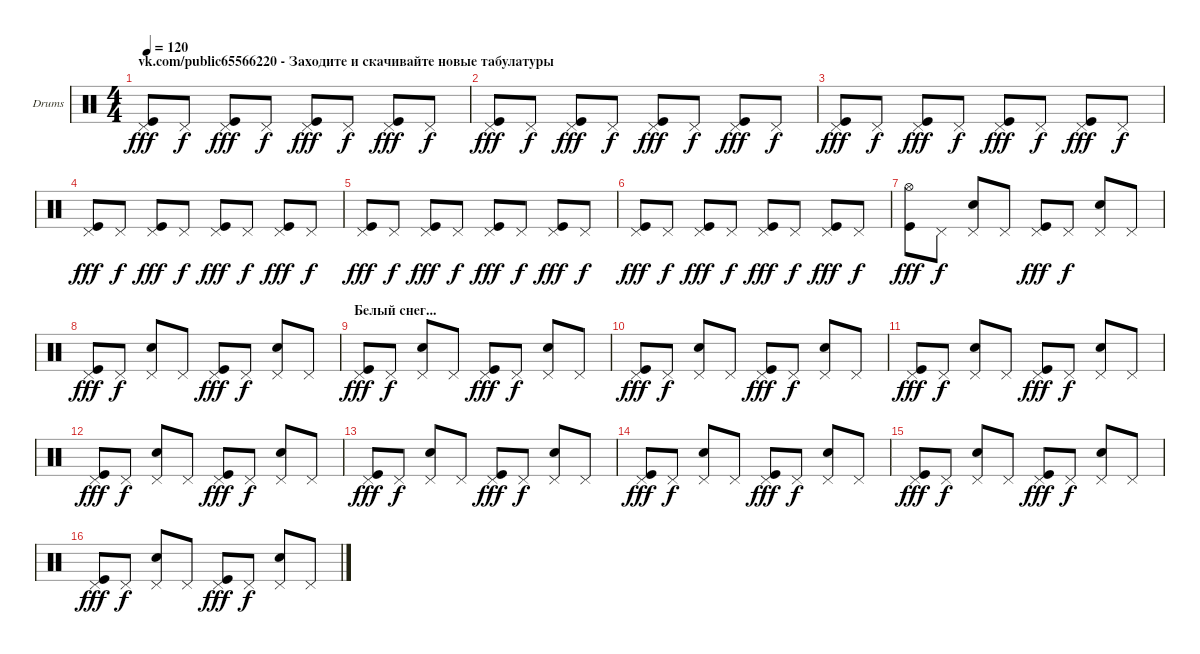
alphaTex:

\bracketExtendMode groupsimilarinstruments
\firstSystemTrackNameOrientation horizontal
\otherSystemsTrackNameOrientation horizontal
\track ("Ударные" "Drums") {instrument percussion}
\staff {score}
\articulation defaults
\ts (4 4)
\section ("" "vk.com/public65566220 - Заходите и скачивайте новые табулатуры")
\tempo 120
\clef neutral
\ks c
("Kick (hit)" "Pedal Hi-Hat (hit)").8{dy fff} "Pedal Hi-Hat (hit)".8{dy f} ("Kick (hit)" "Pedal Hi-Hat (hit)").8{dy fff} "Pedal Hi-Hat (hit)".8{dy f} ("Kick (hit)" "Pedal Hi-Hat (hit)").8{dy fff} "Pedal Hi-Hat (hit)".8{dy f} ("Kick (hit)" "Pedal Hi-Hat (hit)").8{dy fff} "Pedal Hi-Hat (hit)".8{dy f} |
("Kick (hit)" "Pedal Hi-Hat (hit)").8{dy fff} "Pedal Hi-Hat (hit)".8{dy f} ("Kick (hit)" "Pedal Hi-Hat (hit)").8{dy fff} "Pedal Hi-Hat (hit)".8{dy f} ("Kick (hit)" "Pedal Hi-Hat (hit)").8{dy fff} "Pedal Hi-Hat (hit)".8{dy f} ("Kick (hit)" "Pedal Hi-Hat (hit)").8{dy fff} "Pedal Hi-Hat (hit)".8{dy f} |
("Kick (hit)" "Pedal Hi-Hat (hit)").8{dy fff} "Pedal Hi-Hat (hit)".8{dy f} ("Kick (hit)" "Pedal Hi-Hat (hit)").8{dy fff} "Pedal Hi-Hat (hit)".8{dy f} ("Kick (hit)" "Pedal Hi-Hat (hit)").8{dy fff} "Pedal Hi-Hat (hit)".8{dy f} ("Kick (hit)" "Pedal Hi-Hat (hit)").8{dy fff} "Pedal Hi-Hat (hit)".8{dy f} |
("Kick (hit)" "Pedal Hi-Hat (hit)").8{dy fff} "Pedal Hi-Hat (hit)".8{dy f} ("Kick (hit)" "Pedal Hi-Hat (hit)").8{dy fff} "Pedal Hi-Hat (hit)".8{dy f} ("Kick (hit)" "Pedal Hi-Hat (hit)").8{dy fff} "Pedal Hi-Hat (hit)".8{dy f} ("Kick (hit)" "Pedal Hi-Hat (hit)").8{dy fff} "Pedal Hi-Hat (hit)".8{dy f} |
("Kick (hit)" "Pedal Hi-Hat (hit)").8{dy fff} "Pedal Hi-Hat (hit)".8{dy f} ("Kick (hit)" "Pedal Hi-Hat (hit)").8{dy fff} "Pedal Hi-Hat (hit)".8{dy f} ("Kick (hit)" "Pedal Hi-Hat (hit)").8{dy fff} "Pedal Hi-Hat (hit)".8{dy f} ("Kick (hit)" "Pedal Hi-Hat (hit)").8{dy fff} "Pedal Hi-Hat (hit)".8{dy f} |
("Kick (hit)" "Pedal Hi-Hat (hit)").8{dy fff} "Pedal Hi-Hat (hit)".8{dy f} ("Kick (hit)" "Pedal Hi-Hat (hit)").8{dy fff} "Pedal Hi-Hat (hit)".8{dy f} ("Kick (hit)" "Pedal Hi-Hat (hit)").8{dy fff} "Pedal Hi-Hat (hit)".8{dy f} ("Kick (hit)" "Pedal Hi-Hat (hit)").8{dy fff} "Pedal Hi-Hat (hit)".8{dy f} |
("Kick (hit)" "Hi-Hat (open)").8{dy fff} "Pedal Hi-Hat (hit)".8{dy f} ("Snare (hit) 2" "Pedal Hi-Hat (hit)").8 "Pedal Hi-Hat (hit)".8 ("Kick (hit)" "Pedal Hi-Hat (hit)").8{dy fff} "Pedal Hi-Hat (hit)".8{dy f} ("Snare (hit) 2" "Pedal Hi-Hat (hit)").8 "Pedal Hi-Hat (hit)".8 |
("Kick (hit)" "Pedal Hi-Hat (hit)").8{dy fff} "Pedal Hi-Hat (hit)".8{dy f} ("Snare (hit) 2" "Pedal Hi-Hat (hit)").8 "Pedal Hi-Hat (hit)".8 ("Kick (hit)" "Pedal Hi-Hat (hit)").8{dy fff} "Pedal Hi-Hat (hit)".8{dy f} ("Snare (hit) 2" "Pedal Hi-Hat (hit)").8 "Pedal Hi-Hat (hit)".8 |
\section ("" "Белый снег...")
("Kick (hit)" "Pedal Hi-Hat (hit)").8{dy fff} "Pedal Hi-Hat (hit)".8{dy f} ("Snare (hit) 2" "Pedal Hi-Hat (hit)").8 "Pedal Hi-Hat (hit)".8 ("Kick (hit)" "Pedal Hi-Hat (hit)").8{dy fff} "Pedal Hi-Hat (hit)".8{dy f} ("Snare (hit) 2" "Pedal Hi-Hat (hit)").8 "Pedal Hi-Hat (hit)".8 |
("Kick (hit)" "Pedal Hi-Hat (hit)").8{dy fff} "Pedal Hi-Hat (hit)".8{dy f} ("Snare (hit) 2" "Pedal Hi-Hat (hit)").8 "Pedal Hi-Hat (hit)".8 ("Kick (hit)" "Pedal Hi-Hat (hit)").8{dy fff} "Pedal Hi-Hat (hit)".8{dy f} ("Snare (hit) 2" "Pedal Hi-Hat (hit)").8 "Pedal Hi-Hat (hit)".8 |
("Kick (hit)" "Pedal Hi-Hat (hit)").8{dy fff} "Pedal Hi-Hat (hit)".8{dy f} ("Snare (hit) 2" "Pedal Hi-Hat (hit)").8 "Pedal Hi-Hat (hit)".8 ("Kick (hit)" "Pedal Hi-Hat (hit)").8{dy fff} "Pedal Hi-Hat (hit)".8{dy f} ("Snare (hit) 2" "Pedal Hi-Hat (hit)").8 "Pedal Hi-Hat (hit)".8 |
("Kick (hit)" "Pedal Hi-Hat (hit)").8{dy fff} "Pedal Hi-Hat (hit)".8{dy f} ("Snare (hit) 2" "Pedal Hi-Hat (hit)").8 "Pedal Hi-Hat (hit)".8 ("Kick (hit)" "Pedal Hi-Hat (hit)").8{dy fff} "Pedal Hi-Hat (hit)".8{dy f} ("Snare (hit) 2" "Pedal Hi-Hat (hit)").8 "Pedal Hi-Hat (hit)".8 |
("Kick (hit)" "Pedal Hi-Hat (hit)").8{dy fff} "Pedal Hi-Hat (hit)".8{dy f} ("Snare (hit) 2" "Pedal Hi-Hat (hit)").8 "Pedal Hi-Hat (hit)".8 ("Kick (hit)" "Pedal Hi-Hat (hit)").8{dy fff} "Pedal Hi-Hat (hit)".8{dy f} ("Snare (hit) 2" "Pedal Hi-Hat (hit)").8 "Pedal Hi-Hat (hit)".8 |
("Kick (hit)" "Pedal Hi-Hat (hit)").8{dy fff} "Pedal Hi-Hat (hit)".8{dy f} ("Snare (hit) 2" "Pedal Hi-Hat (hit)").8 "Pedal Hi-Hat (hit)".8 ("Kick (hit)" "Pedal Hi-Hat (hit)").8{dy fff} "Pedal Hi-Hat (hit)".8{dy f} ("Snare (hit) 2" "Pedal Hi-Hat (hit)").8 "Pedal Hi-Hat (hit)".8 |
("Kick (hit)" "Pedal Hi-Hat (hit)").8{dy fff} "Pedal Hi-Hat (hit)".8{dy f} ("Snare (hit) 2" "Pedal Hi-Hat (hit)").8 "Pedal Hi-Hat (hit)".8 ("Kick (hit)" "Pedal Hi-Hat (hit)").8{dy fff} "Pedal Hi-Hat (hit)".8{dy f} ("Snare (hit) 2" "Pedal Hi-Hat (hit)").8 "Pedal Hi-Hat (hit)".8 |
("Kick (hit)" "Pedal Hi-Hat (hit)").8{dy fff} "Pedal Hi-Hat (hit)".8{dy f} ("Snare (hit) 2" "Pedal Hi-Hat (hit)").8 "Pedal Hi-Hat (hit)".8 ("Kick (hit)" "Pedal Hi-Hat (hit)").8{dy fff} "Pedal Hi-Hat (hit)".8{dy f} ("Snare (hit) 2" "Pedal Hi-Hat (hit)").8 "Pedal Hi-Hat (hit)".8
